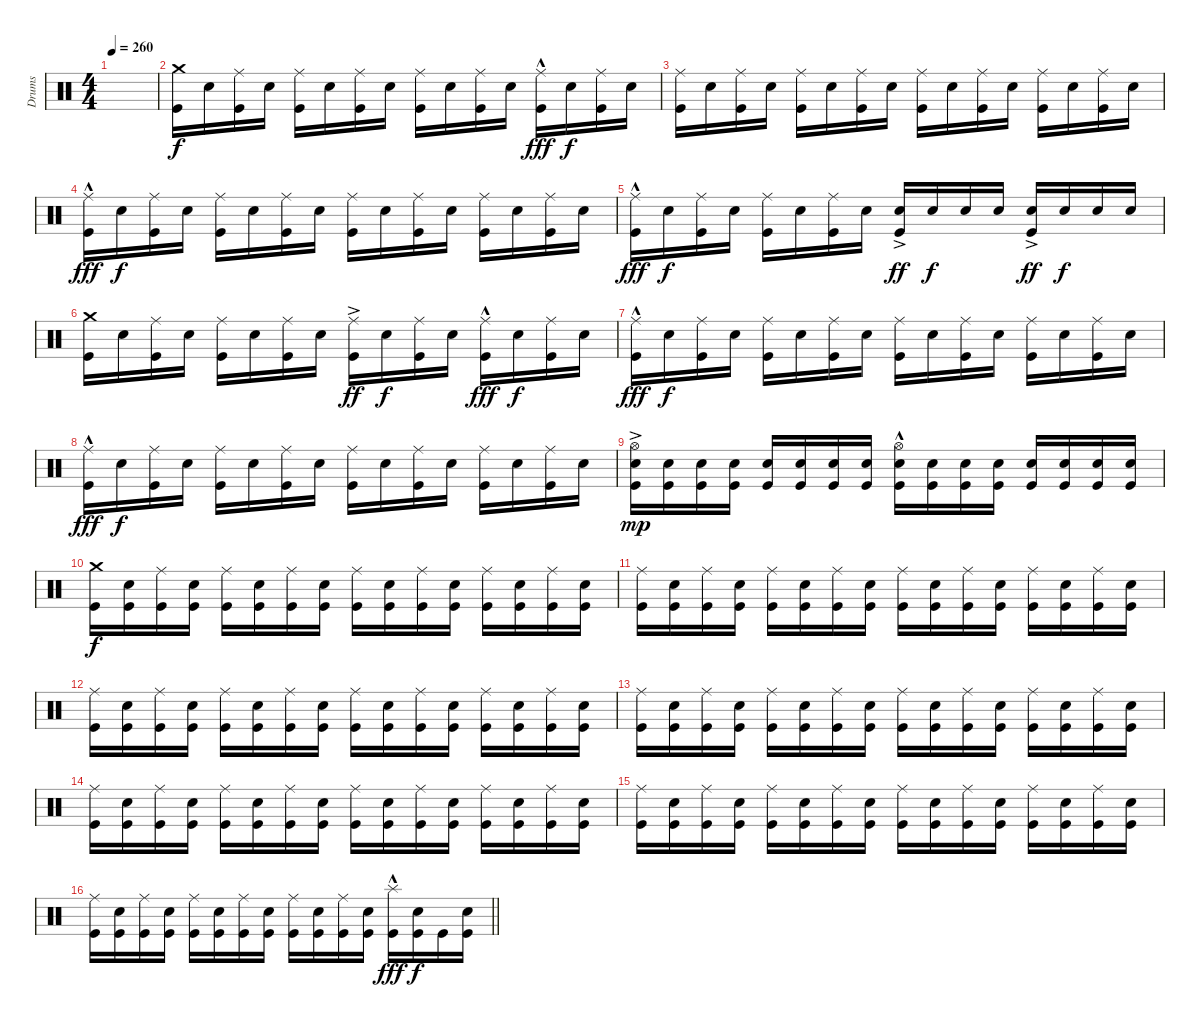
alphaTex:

\track ("Drums" "Drums") {instrument percussion}
\staff {score}
\articulation defaults
\ts (4 4)
\tempo 260
\clef neutral
\ks c
|
("Crash medium (hit)" "Kick (hit)").16{dy f} "Electric Snare (hit)".16 ("Ride (middle)" "Kick (hit)").16 "Electric Snare (hit)".16 ("Ride (middle)" "Kick (hit)").16 "Electric Snare (hit)".16 ("Ride (middle)" "Kick (hit)").16 "Electric Snare (hit)".16 ("Ride (middle)" "Kick (hit)").16 "Electric Snare (hit)".16 ("Ride (middle)" "Kick (hit)").16 "Electric Snare (hit)".16 ("Ride (middle)"{hac} "Kick (hit)").16{dy fff} "Electric Snare (hit)".16{dy f} ("Ride (middle)" "Kick (hit)").16 "Electric Snare (hit)".16 |
("Ride (middle)" "Kick (hit)").16 "Electric Snare (hit)".16 ("Ride (middle)" "Kick (hit)").16 "Electric Snare (hit)".16 ("Ride (middle)" "Kick (hit)").16 "Electric Snare (hit)".16 ("Ride (middle)" "Kick (hit)").16 "Electric Snare (hit)".16 ("Ride (middle)" "Kick (hit)").16 "Electric Snare (hit)".16 ("Ride (middle)" "Kick (hit)").16 "Electric Snare (hit)".16 ("Ride (middle)" "Kick (hit)").16 "Electric Snare (hit)".16 ("Ride (middle)" "Kick (hit)").16 "Electric Snare (hit)".16 |
("Ride (middle)"{hac} "Kick (hit)").16{dy fff} "Electric Snare (hit)".16{dy f} ("Ride (middle)" "Kick (hit)").16 "Electric Snare (hit)".16 ("Ride (middle)" "Kick (hit)").16 "Electric Snare (hit)".16 ("Ride (middle)" "Kick (hit)").16 "Electric Snare (hit)".16 ("Ride (middle)" "Kick (hit)").16 "Electric Snare (hit)".16 ("Ride (middle)" "Kick (hit)").16 "Electric Snare (hit)".16 ("Ride (middle)" "Kick (hit)").16 "Electric Snare (hit)".16 ("Ride (middle)" "Kick (hit)").16 "Electric Snare (hit)".16 |
("Ride (middle)"{hac} "Kick (hit)").16{dy fff} "Electric Snare (hit)".16{dy f} ("Ride (middle)" "Kick (hit)").16 "Electric Snare (hit)".16 ("Ride (middle)" "Kick (hit)").16 "Electric Snare (hit)".16 ("Ride (middle)" "Kick (hit)").16 "Electric Snare (hit)".16 ("Electric Snare (hit)"{ac} "Kick (hit)").16{dy ff} "Electric Snare (hit)".16{dy f} "Electric Snare (hit)".16 "Electric Snare (hit)".16 ("Electric Snare (hit)"{ac} "Kick (hit)").16{dy ff} "Electric Snare (hit)".16{dy f} "Electric Snare (hit)".16 "Electric Snare (hit)".16 |
("Crash medium (hit)" "Kick (hit)").16 "Electric Snare (hit)".16 ("Ride (middle)" "Kick (hit)").16 "Electric Snare (hit)".16 ("Ride (middle)" "Kick (hit)").16 "Electric Snare (hit)".16 ("Ride (middle)" "Kick (hit)").16 "Electric Snare (hit)".16 ("Ride (middle)"{ac} "Kick (hit)").16{dy ff} "Electric Snare (hit)".16{dy f} ("Ride (middle)" "Kick (hit)").16 "Electric Snare (hit)".16 ("Ride (middle)"{hac} "Kick (hit)").16{dy fff} "Electric Snare (hit)".16{dy f} ("Ride (middle)" "Kick (hit)").16 "Electric Snare (hit)".16 |
("Ride (middle)"{hac} "Kick (hit)").16{dy fff} "Electric Snare (hit)".16{dy f} ("Ride (middle)" "Kick (hit)").16 "Electric Snare (hit)".16 ("Ride (middle)" "Kick (hit)").16 "Electric Snare (hit)".16 ("Ride (middle)" "Kick (hit)").16 "Electric Snare (hit)".16 ("Ride (middle)" "Kick (hit)").16 "Electric Snare (hit)".16 ("Ride (middle)" "Kick (hit)").16 "Electric Snare (hit)".16 ("Ride (middle)" "Kick (hit)").16 "Electric Snare (hit)".16 ("Ride (middle)" "Kick (hit)").16 "Electric Snare (hit)".16 |
("Ride (middle)"{hac} "Kick (hit)").16{dy fff} "Electric Snare (hit)".16{dy f} ("Ride (middle)" "Kick (hit)").16 "Electric Snare (hit)".16 ("Ride (middle)" "Kick (hit)").16 "Electric Snare (hit)".16 ("Ride (middle)" "Kick (hit)").16 "Electric Snare (hit)".16 ("Ride (middle)" "Kick (hit)").16 "Electric Snare (hit)".16 ("Ride (middle)" "Kick (hit)").16 "Electric Snare (hit)".16 ("Ride (middle)" "Kick (hit)").16 "Electric Snare (hit)".16 ("Ride (middle)" "Kick (hit)").16 "Electric Snare (hit)".16 |
("Hi-Hat (open)"{ac} "Electric Snare (hit)" "Kick (hit)").16{dy mp} ("Electric Snare (hit)" "Kick (hit)").16 ("Electric Snare (hit)" "Kick (hit)").16 ("Electric Snare (hit)" "Kick (hit)").16 ("Electric Snare (hit)" "Kick (hit)").16 ("Electric Snare (hit)" "Kick (hit)").16 ("Electric Snare (hit)" "Kick (hit)").16 ("Electric Snare (hit)" "Kick (hit)").16 ("Hi-Hat (open)"{hac} "Electric Snare (hit)" "Kick (hit)").16 ("Electric Snare (hit)" "Kick (hit)").16 ("Electric Snare (hit)" "Kick (hit)").16 ("Electric Snare (hit)" "Kick (hit)").16 ("Electric Snare (hit)" "Kick (hit)").16 ("Electric Snare (hit)" "Kick (hit)").16 ("Electric Snare (hit)" "Kick (hit)").16 ("Electric Snare (hit)" "Kick (hit)").16 |
("Crash medium (hit)" "Kick (hit)").16{dy f} ("Electric Snare (hit)" "Kick (hit)").16 ("Ride (middle)" "Kick (hit)").16 ("Electric Snare (hit)" "Kick (hit)").16 ("Ride (middle)" "Kick (hit)").16 ("Electric Snare (hit)" "Kick (hit)").16 ("Ride (middle)" "Kick (hit)").16 ("Electric Snare (hit)" "Kick (hit)").16 ("Ride (middle)" "Kick (hit)").16 ("Electric Snare (hit)" "Kick (hit)").16 ("Ride (middle)" "Kick (hit)").16 ("Electric Snare (hit)" "Kick (hit)").16 ("Ride (middle)" "Kick (hit)").16 ("Electric Snare (hit)" "Kick (hit)").16 ("Ride (middle)" "Kick (hit)").16 ("Electric Snare (hit)" "Kick (hit)").16 |
("Ride (middle)" "Kick (hit)").16 ("Electric Snare (hit)" "Kick (hit)").16 ("Ride (middle)" "Kick (hit)").16 ("Electric Snare (hit)" "Kick (hit)").16 ("Ride (middle)" "Kick (hit)").16 ("Electric Snare (hit)" "Kick (hit)").16 ("Ride (middle)" "Kick (hit)").16 ("Electric Snare (hit)" "Kick (hit)").16 ("Ride (middle)" "Kick (hit)").16 ("Electric Snare (hit)" "Kick (hit)").16 ("Ride (middle)" "Kick (hit)").16 ("Electric Snare (hit)" "Kick (hit)").16 ("Ride (middle)" "Kick (hit)").16 ("Electric Snare (hit)" "Kick (hit)").16 ("Ride (middle)" "Kick (hit)").16 ("Electric Snare (hit)" "Kick (hit)").16 |
("Ride (middle)" "Kick (hit)").16 ("Electric Snare (hit)" "Kick (hit)").16 ("Ride (middle)" "Kick (hit)").16 ("Electric Snare (hit)" "Kick (hit)").16 ("Ride (middle)" "Kick (hit)").16 ("Electric Snare (hit)" "Kick (hit)").16 ("Ride (middle)" "Kick (hit)").16 ("Electric Snare (hit)" "Kick (hit)").16 ("Ride (middle)" "Kick (hit)").16 ("Electric Snare (hit)" "Kick (hit)").16 ("Ride (middle)" "Kick (hit)").16 ("Electric Snare (hit)" "Kick (hit)").16 ("Ride (middle)" "Kick (hit)").16 ("Electric Snare (hit)" "Kick (hit)").16 ("Ride (middle)" "Kick (hit)").16 ("Electric Snare (hit)" "Kick (hit)").16 |
("Ride (middle)" "Kick (hit)").16 ("Electric Snare (hit)" "Kick (hit)").16 ("Ride (middle)" "Kick (hit)").16 ("Electric Snare (hit)" "Kick (hit)").16 ("Ride (middle)" "Kick (hit)").16 ("Electric Snare (hit)" "Kick (hit)").16 ("Ride (middle)" "Kick (hit)").16 ("Electric Snare (hit)" "Kick (hit)").16 ("Ride (middle)" "Kick (hit)").16 ("Electric Snare (hit)" "Kick (hit)").16 ("Ride (middle)" "Kick (hit)").16 ("Electric Snare (hit)" "Kick (hit)").16 ("Ride (middle)" "Kick (hit)").16 ("Electric Snare (hit)" "Kick (hit)").16 ("Ride (middle)" "Kick (hit)").16 ("Electric Snare (hit)" "Kick (hit)").16 |
("Ride (middle)" "Kick (hit)").16 ("Electric Snare (hit)" "Kick (hit)").16 ("Ride (middle)" "Kick (hit)").16 ("Electric Snare (hit)" "Kick (hit)").16 ("Ride (middle)" "Kick (hit)").16 ("Electric Snare (hit)" "Kick (hit)").16 ("Ride (middle)" "Kick (hit)").16 ("Electric Snare (hit)" "Kick (hit)").16 ("Ride (middle)" "Kick (hit)").16 ("Electric Snare (hit)" "Kick (hit)").16 ("Ride (middle)" "Kick (hit)").16 ("Electric Snare (hit)" "Kick (hit)").16 ("Ride (middle)" "Kick (hit)").16 ("Electric Snare (hit)" "Kick (hit)").16 ("Ride (middle)" "Kick (hit)").16 ("Electric Snare (hit)" "Kick (hit)").16 |
("Ride (middle)" "Kick (hit)").16 ("Electric Snare (hit)" "Kick (hit)").16 ("Ride (middle)" "Kick (hit)").16 ("Electric Snare (hit)" "Kick (hit)").16 ("Ride (middle)" "Kick (hit)").16 ("Electric Snare (hit)" "Kick (hit)").16 ("Ride (middle)" "Kick (hit)").16 ("Electric Snare (hit)" "Kick (hit)").16 ("Ride (middle)" "Kick (hit)").16 ("Electric Snare (hit)" "Kick (hit)").16 ("Ride (middle)" "Kick (hit)").16 ("Electric Snare (hit)" "Kick (hit)").16 ("Ride (middle)" "Kick (hit)").16 ("Electric Snare (hit)" "Kick (hit)").16 ("Ride (middle)" "Kick (hit)").16 ("Electric Snare (hit)" "Kick (hit)").16 |
\barLineRight lightlight
("Ride (middle)" "Kick (hit)").16 ("Electric Snare (hit)" "Kick (hit)").16 ("Ride (middle)" "Kick (hit)").16 ("Electric Snare (hit)" "Kick (hit)").16 ("Ride (middle)" "Kick (hit)").16 ("Electric Snare (hit)" "Kick (hit)").16 ("Ride (middle)" "Kick (hit)").16 ("Electric Snare (hit)" "Kick (hit)").16 ("Ride (middle)" "Kick (hit)").16 ("Electric Snare (hit)" "Kick (hit)").16 ("Ride (middle)" "Kick (hit)").16 ("Electric Snare (hit)" "Kick (hit)").16 ("Splash (hit)"{hac} "Kick (hit)").16{dy fff} ("Electric Snare (hit)" "Kick (hit)").16{dy f} "Kick (hit)".16 ("Electric Snare (hit)" "Kick (hit)").16
